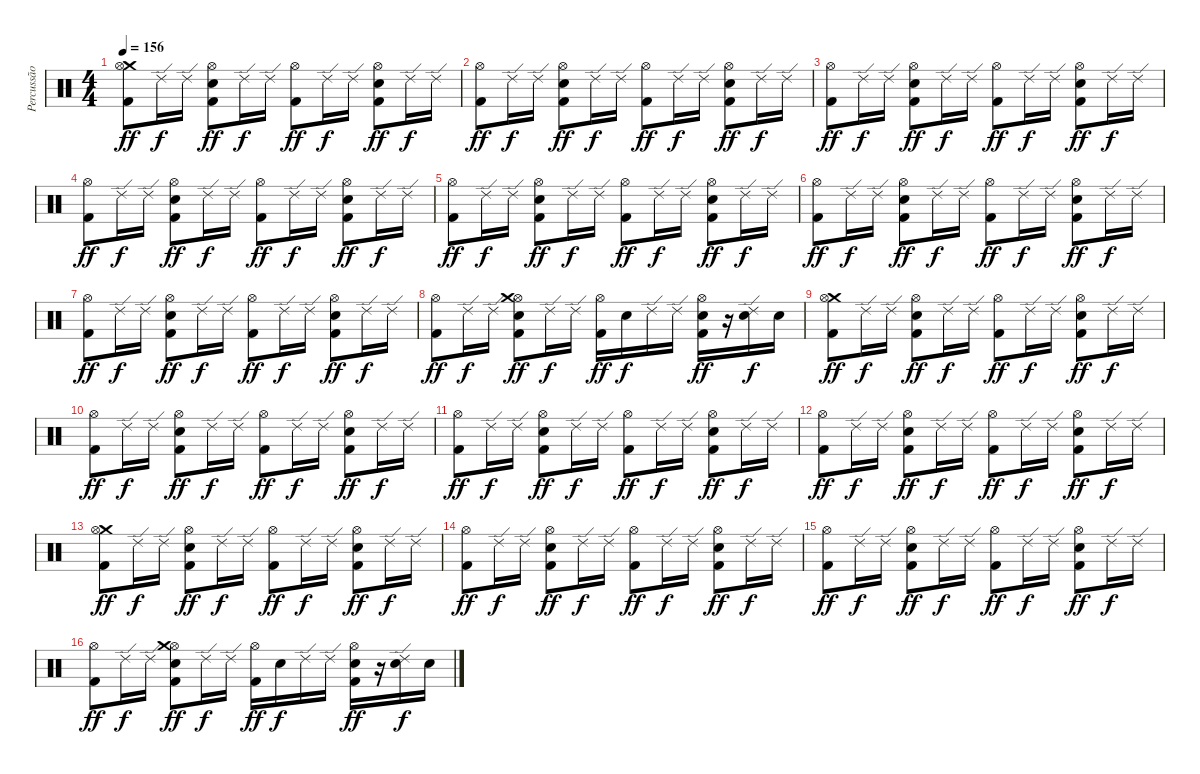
\track ("Percussão" "Percussão") {instrument percussion}
\staff {score}
\articulation defaults
\ts (4 4)
\tempo 156
\clef neutral
\ks c
("Crash medium (hit)" "Hi-Hat (open)" "Kick (hit) 2").8{dy ff} "Ride (edge) 2".16{dy f} "Ride (edge) 2".16 ("Hi-Hat (open)" "Snare (hit) 2" "Kick (hit) 2").8{dy ff} "Ride (edge) 2".16{dy f} "Ride (edge) 2".16 ("Hi-Hat (open)" "Kick (hit) 2").8{dy ff} "Ride (edge) 2".16{dy f} "Ride (edge) 2".16 ("Hi-Hat (open)" "Snare (hit) 2" "Kick (hit) 2").8{dy ff} "Ride (edge) 2".16{dy f} "Ride (edge) 2".16 |
("Hi-Hat (open)" "Kick (hit) 2").8{dy ff} "Ride (edge) 2".16{dy f} "Ride (edge) 2".16 ("Hi-Hat (open)" "Snare (hit) 2" "Kick (hit) 2").8{dy ff} "Ride (edge) 2".16{dy f} "Ride (edge) 2".16 ("Hi-Hat (open)" "Kick (hit) 2").8{dy ff} "Ride (edge) 2".16{dy f} "Ride (edge) 2".16 ("Hi-Hat (open)" "Snare (hit) 2" "Kick (hit) 2").8{dy ff} "Ride (edge) 2".16{dy f} "Ride (edge) 2".16 |
("Hi-Hat (open)" "Kick (hit) 2").8{dy ff} "Ride (edge) 2".16{dy f} "Ride (edge) 2".16 ("Hi-Hat (open)" "Snare (hit) 2" "Kick (hit) 2").8{dy ff} "Ride (edge) 2".16{dy f} "Ride (edge) 2".16 ("Hi-Hat (open)" "Kick (hit) 2").8{dy ff} "Ride (edge) 2".16{dy f} "Ride (edge) 2".16 ("Hi-Hat (open)" "Snare (hit) 2" "Kick (hit) 2").8{dy ff} "Ride (edge) 2".16{dy f} "Ride (edge) 2".16 |
("Hi-Hat (open)" "Kick (hit) 2").8{dy ff} "Ride (edge) 2".16{dy f} "Ride (edge) 2".16 ("Hi-Hat (open)" "Snare (hit) 2" "Kick (hit) 2").8{dy ff} "Ride (edge) 2".16{dy f} "Ride (edge) 2".16 ("Hi-Hat (open)" "Kick (hit) 2").8{dy ff} "Ride (edge) 2".16{dy f} "Ride (edge) 2".16 ("Hi-Hat (open)" "Snare (hit) 2" "Kick (hit) 2").8{dy ff} "Ride (edge) 2".16{dy f} "Ride (edge) 2".16 |
("Hi-Hat (open)" "Kick (hit) 2").8{dy ff} "Ride (edge) 2".16{dy f} "Ride (edge) 2".16 ("Hi-Hat (open)" "Snare (hit) 2" "Kick (hit) 2").8{dy ff} "Ride (edge) 2".16{dy f} "Ride (edge) 2".16 ("Hi-Hat (open)" "Kick (hit) 2").8{dy ff} "Ride (edge) 2".16{dy f} "Ride (edge) 2".16 ("Hi-Hat (open)" "Snare (hit) 2" "Kick (hit) 2").8{dy ff} "Ride (edge) 2".16{dy f} "Ride (edge) 2".16 |
("Hi-Hat (open)" "Kick (hit) 2").8{dy ff} "Ride (edge) 2".16{dy f} "Ride (edge) 2".16 ("Hi-Hat (open)" "Snare (hit) 2" "Kick (hit) 2").8{dy ff} "Ride (edge) 2".16{dy f} "Ride (edge) 2".16 ("Hi-Hat (open)" "Kick (hit) 2").8{dy ff} "Ride (edge) 2".16{dy f} "Ride (edge) 2".16 ("Hi-Hat (open)" "Snare (hit) 2" "Kick (hit) 2").8{dy ff} "Ride (edge) 2".16{dy f} "Ride (edge) 2".16 |
("Hi-Hat (open)" "Kick (hit) 2").8{dy ff} "Ride (edge) 2".16{dy f} "Ride (edge) 2".16 ("Hi-Hat (open)" "Snare (hit) 2" "Kick (hit) 2").8{dy ff} "Ride (edge) 2".16{dy f} "Ride (edge) 2".16 ("Hi-Hat (open)" "Kick (hit) 2").8{dy ff} "Ride (edge) 2".16{dy f} "Ride (edge) 2".16 ("Hi-Hat (open)" "Snare (hit) 2" "Kick (hit) 2").8{dy ff} "Ride (edge) 2".16{dy f} "Ride (edge) 2".16 |
("Hi-Hat (open)" "Kick (hit) 2").8{dy ff} "Ride (edge) 2".16{dy f} "Ride (edge) 2".16 ("Hi-Hat (open)" "Crash medium (hit)" "Snare (hit) 2" "Kick (hit) 2").8{dy ff} "Ride (edge) 2".16{dy f} "Ride (edge) 2".16 ("Hi-Hat (open)" "Kick (hit) 2").16{dy ff} "Snare (hit) 2".16{dy f} "Ride (edge) 2".16 "Ride (edge) 2".16 ("Hi-Hat (open)" "Snare (hit) 2" "Kick (hit) 2").16{dy ff} r.16 ("Ride (edge) 2" "Snare (hit) 2").16{dy f} "Snare (hit) 2".16 |
("Crash medium (hit)" "Hi-Hat (open)" "Kick (hit) 2").8{dy ff} "Ride (edge) 2".16{dy f} "Ride (edge) 2".16 ("Hi-Hat (open)" "Snare (hit) 2" "Kick (hit) 2").8{dy ff} "Ride (edge) 2".16{dy f} "Ride (edge) 2".16 ("Hi-Hat (open)" "Kick (hit) 2").8{dy ff} "Ride (edge) 2".16{dy f} "Ride (edge) 2".16 ("Hi-Hat (open)" "Snare (hit) 2" "Kick (hit) 2").8{dy ff} "Ride (edge) 2".16{dy f} "Ride (edge) 2".16 |
("Hi-Hat (open)" "Kick (hit) 2").8{dy ff} "Ride (edge) 2".16{dy f} "Ride (edge) 2".16 ("Hi-Hat (open)" "Snare (hit) 2" "Kick (hit) 2").8{dy ff} "Ride (edge) 2".16{dy f} "Ride (edge) 2".16 ("Hi-Hat (open)" "Kick (hit) 2").8{dy ff} "Ride (edge) 2".16{dy f} "Ride (edge) 2".16 ("Hi-Hat (open)" "Snare (hit) 2" "Kick (hit) 2").8{dy ff} "Ride (edge) 2".16{dy f} "Ride (edge) 2".16 |
("Hi-Hat (open)" "Kick (hit) 2").8{dy ff} "Ride (edge) 2".16{dy f} "Ride (edge) 2".16 ("Hi-Hat (open)" "Snare (hit) 2" "Kick (hit) 2").8{dy ff} "Ride (edge) 2".16{dy f} "Ride (edge) 2".16 ("Hi-Hat (open)" "Kick (hit) 2").8{dy ff} "Ride (edge) 2".16{dy f} "Ride (edge) 2".16 ("Hi-Hat (open)" "Snare (hit) 2" "Kick (hit) 2").8{dy ff} "Ride (edge) 2".16{dy f} "Ride (edge) 2".16 |
("Hi-Hat (open)" "Kick (hit) 2").8{dy ff} "Ride (edge) 2".16{dy f} "Ride (edge) 2".16 ("Hi-Hat (open)" "Snare (hit) 2" "Kick (hit) 2").8{dy ff} "Ride (edge) 2".16{dy f} "Ride (edge) 2".16 ("Hi-Hat (open)" "Kick (hit) 2").8{dy ff} "Ride (edge) 2".16{dy f} "Ride (edge) 2".16 ("Hi-Hat (open)" "Snare (hit) 2" "Kick (hit) 2").8{dy ff} "Ride (edge) 2".16{dy f} "Ride (edge) 2".16 |
("Crash medium (hit)" "Hi-Hat (open)" "Kick (hit) 2").8{dy ff} "Ride (edge) 2".16{dy f} "Ride (edge) 2".16 ("Hi-Hat (open)" "Snare (hit) 2" "Kick (hit) 2").8{dy ff} "Ride (edge) 2".16{dy f} "Ride (edge) 2".16 ("Hi-Hat (open)" "Kick (hit) 2").8{dy ff} "Ride (edge) 2".16{dy f} "Ride (edge) 2".16 ("Hi-Hat (open)" "Snare (hit) 2" "Kick (hit) 2").8{dy ff} "Ride (edge) 2".16{dy f} "Ride (edge) 2".16 |
("Hi-Hat (open)" "Kick (hit) 2").8{dy ff} "Ride (edge) 2".16{dy f} "Ride (edge) 2".16 ("Hi-Hat (open)" "Snare (hit) 2" "Kick (hit) 2").8{dy ff} "Ride (edge) 2".16{dy f} "Ride (edge) 2".16 ("Hi-Hat (open)" "Kick (hit) 2").8{dy ff} "Ride (edge) 2".16{dy f} "Ride (edge) 2".16 ("Hi-Hat (open)" "Snare (hit) 2" "Kick (hit) 2").8{dy ff} "Ride (edge) 2".16{dy f} "Ride (edge) 2".16 |
("Hi-Hat (open)" "Kick (hit) 2").8{dy ff} "Ride (edge) 2".16{dy f} "Ride (edge) 2".16 ("Hi-Hat (open)" "Snare (hit) 2" "Kick (hit) 2").8{dy ff} "Ride (edge) 2".16{dy f} "Ride (edge) 2".16 ("Hi-Hat (open)" "Kick (hit) 2").8{dy ff} "Ride (edge) 2".16{dy f} "Ride (edge) 2".16 ("Hi-Hat (open)" "Snare (hit) 2" "Kick (hit) 2").8{dy ff} "Ride (edge) 2".16{dy f} "Ride (edge) 2".16 |
("Hi-Hat (open)" "Kick (hit) 2").8{dy ff} "Ride (edge) 2".16{dy f} "Ride (edge) 2".16 ("Hi-Hat (open)" "Crash medium (hit)" "Snare (hit) 2" "Kick (hit) 2").8{dy ff} "Ride (edge) 2".16{dy f} "Ride (edge) 2".16 ("Hi-Hat (open)" "Kick (hit) 2").16{dy ff} "Snare (hit) 2".16{dy f} "Ride (edge) 2".16 "Ride (edge) 2".16 ("Hi-Hat (open)" "Snare (hit) 2" "Kick (hit) 2").16{dy ff} r.16 ("Ride (edge) 2" "Snare (hit) 2").16{dy f} "Snare (hit) 2".16
